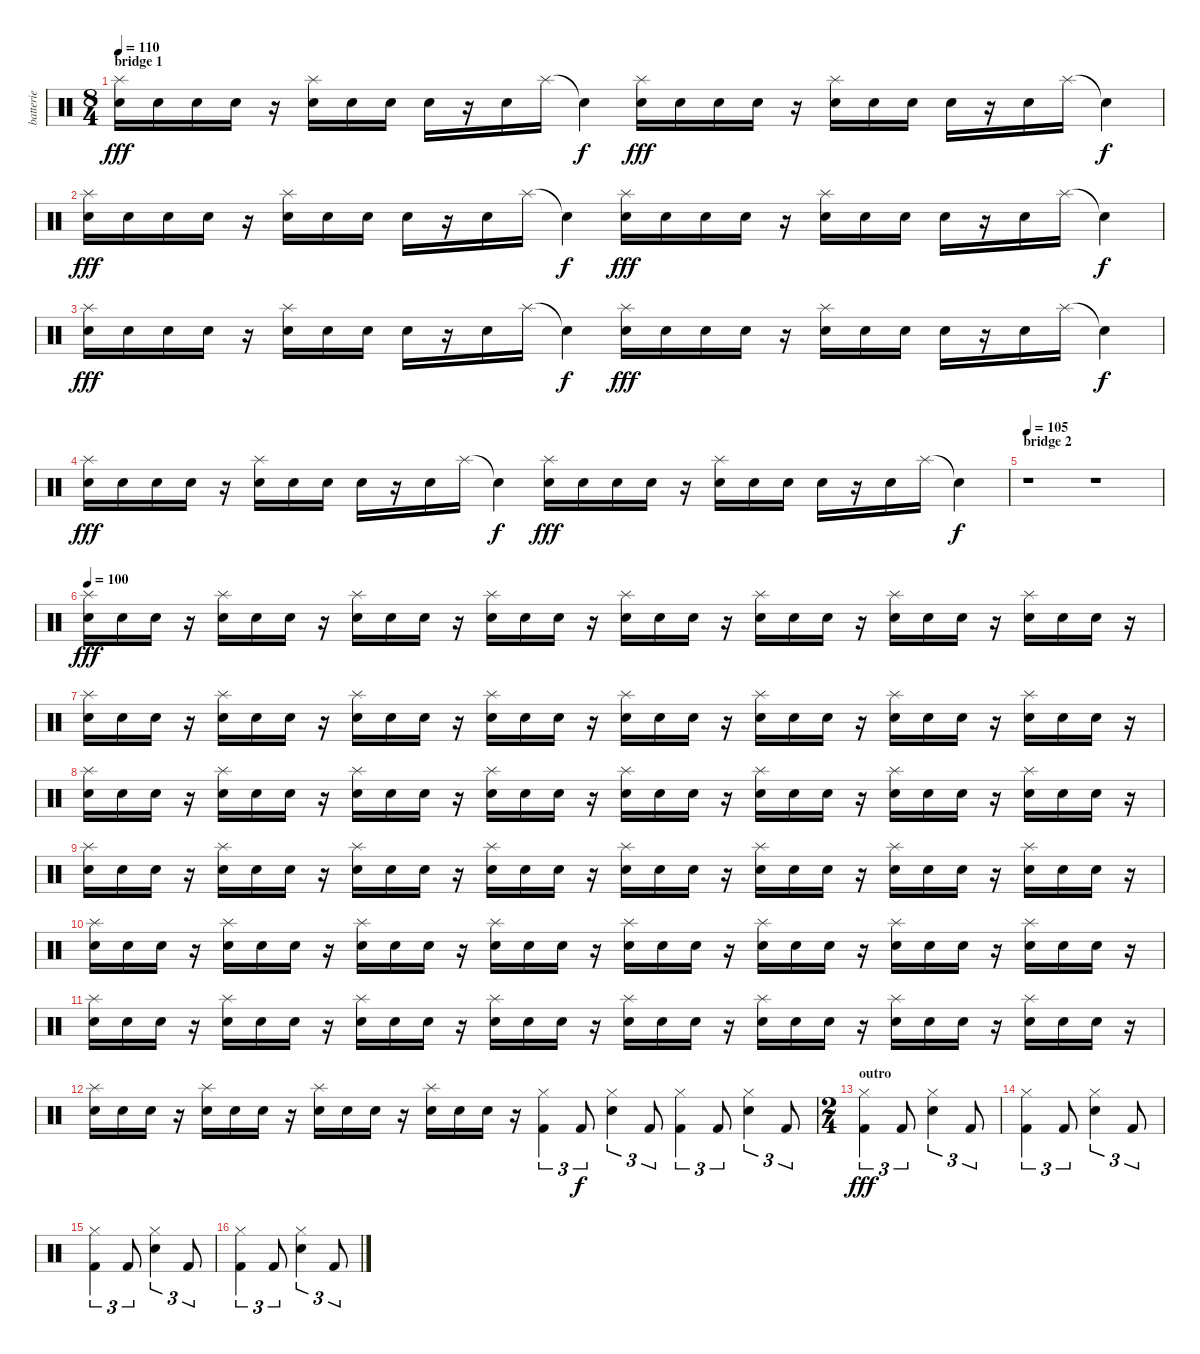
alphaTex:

\track ("batterie" "batterie") {instrument percussion}
\staff {score}
\articulation defaults
\ts (8 4)
\section ("" "bridge 1")
\tempo 110
\clef neutral
\ks c
("Splash (hit)" "Electric Snare (hit)").16{dy fff} "Electric Snare (hit)".16 "Electric Snare (hit)".16 "Electric Snare (hit)".16 r.16 ("Splash (hit)" "Electric Snare (hit)").16 "Electric Snare (hit)".16 "Electric Snare (hit)".16 "Electric Snare (hit)".16 r.16 "Electric Snare (hit)".16 "Splash (hit)".16 "Snare (hit)"{t}.4{dy f} ("Splash (hit)" "Electric Snare (hit)").16{dy fff} "Electric Snare (hit)".16 "Electric Snare (hit)".16 "Electric Snare (hit)".16 r.16 ("Splash (hit)" "Electric Snare (hit)").16 "Electric Snare (hit)".16 "Electric Snare (hit)".16 "Electric Snare (hit)".16 r.16 "Electric Snare (hit)".16 "Splash (hit)".16 "Snare (hit)"{t}.4{dy f} |
("Splash (hit)" "Electric Snare (hit)").16{dy fff} "Electric Snare (hit)".16 "Electric Snare (hit)".16 "Electric Snare (hit)".16 r.16 ("Splash (hit)" "Electric Snare (hit)").16 "Electric Snare (hit)".16 "Electric Snare (hit)".16 "Electric Snare (hit)".16 r.16 "Electric Snare (hit)".16 "Splash (hit)".16 "Snare (hit)"{t}.4{dy f} ("Splash (hit)" "Electric Snare (hit)").16{dy fff} "Electric Snare (hit)".16 "Electric Snare (hit)".16 "Electric Snare (hit)".16 r.16 ("Splash (hit)" "Electric Snare (hit)").16 "Electric Snare (hit)".16 "Electric Snare (hit)".16 "Electric Snare (hit)".16 r.16 "Electric Snare (hit)".16 "Splash (hit)".16 "Snare (hit)"{t}.4{dy f} |
("Splash (hit)" "Electric Snare (hit)").16{dy fff} "Electric Snare (hit)".16 "Electric Snare (hit)".16 "Electric Snare (hit)".16 r.16 ("Splash (hit)" "Electric Snare (hit)").16 "Electric Snare (hit)".16 "Electric Snare (hit)".16 "Electric Snare (hit)".16 r.16 "Electric Snare (hit)".16 "Splash (hit)".16 "Snare (hit)"{t}.4{dy f} ("Splash (hit)" "Electric Snare (hit)").16{dy fff} "Electric Snare (hit)".16 "Electric Snare (hit)".16 "Electric Snare (hit)".16 r.16 ("Splash (hit)" "Electric Snare (hit)").16 "Electric Snare (hit)".16 "Electric Snare (hit)".16 "Electric Snare (hit)".16 r.16 "Electric Snare (hit)".16 "Splash (hit)".16 "Snare (hit)"{t}.4{dy f} |
("Splash (hit)" "Electric Snare (hit)").16{dy fff} "Electric Snare (hit)".16 "Electric Snare (hit)".16 "Electric Snare (hit)".16 r.16 ("Splash (hit)" "Electric Snare (hit)").16 "Electric Snare (hit)".16 "Electric Snare (hit)".16 "Electric Snare (hit)".16 r.16 "Electric Snare (hit)".16 "Splash (hit)".16 "Snare (hit)"{t}.4{dy f} ("Splash (hit)" "Electric Snare (hit)").16{dy fff} "Electric Snare (hit)".16 "Electric Snare (hit)".16 "Electric Snare (hit)".16 r.16 ("Splash (hit)" "Electric Snare (hit)").16 "Electric Snare (hit)".16 "Electric Snare (hit)".16 "Electric Snare (hit)".16 r.16 "Electric Snare (hit)".16 "Splash (hit)".16 "Snare (hit)"{t}.4{dy f} |
\section ("" "bridge 2")
\tempo 105
r.1 r.1 |
\tempo 100
("Splash (hit)" "Electric Snare (hit)").16{dy fff} "Electric Snare (hit)".16 "Electric Snare (hit)".16 r.16 ("Splash (hit)" "Electric Snare (hit)").16 "Electric Snare (hit)".16 "Electric Snare (hit)".16 r.16 ("Splash (hit)" "Electric Snare (hit)").16 "Electric Snare (hit)".16 "Electric Snare (hit)".16 r.16 ("Splash (hit)" "Electric Snare (hit)").16 "Electric Snare (hit)".16 "Electric Snare (hit)".16 r.16 ("Splash (hit)" "Electric Snare (hit)").16 "Electric Snare (hit)".16 "Electric Snare (hit)".16 r.16 ("Splash (hit)" "Electric Snare (hit)").16 "Electric Snare (hit)".16 "Electric Snare (hit)".16 r.16 ("Splash (hit)" "Electric Snare (hit)").16 "Electric Snare (hit)".16 "Electric Snare (hit)".16 r.16 ("Splash (hit)" "Electric Snare (hit)").16 "Electric Snare (hit)".16 "Electric Snare (hit)".16 r.16 |
("Splash (hit)" "Electric Snare (hit)").16 "Electric Snare (hit)".16 "Electric Snare (hit)".16 r.16 ("Splash (hit)" "Electric Snare (hit)").16 "Electric Snare (hit)".16 "Electric Snare (hit)".16 r.16 ("Splash (hit)" "Electric Snare (hit)").16 "Electric Snare (hit)".16 "Electric Snare (hit)".16 r.16 ("Splash (hit)" "Electric Snare (hit)").16 "Electric Snare (hit)".16 "Electric Snare (hit)".16 r.16 ("Splash (hit)" "Electric Snare (hit)").16 "Electric Snare (hit)".16 "Electric Snare (hit)".16 r.16 ("Splash (hit)" "Electric Snare (hit)").16 "Electric Snare (hit)".16 "Electric Snare (hit)".16 r.16 ("Splash (hit)" "Electric Snare (hit)").16 "Electric Snare (hit)".16 "Electric Snare (hit)".16 r.16 ("Splash (hit)" "Electric Snare (hit)").16 "Electric Snare (hit)".16 "Electric Snare (hit)".16 r.16 |
("Splash (hit)" "Electric Snare (hit)").16 "Electric Snare (hit)".16 "Electric Snare (hit)".16 r.16 ("Splash (hit)" "Electric Snare (hit)").16 "Electric Snare (hit)".16 "Electric Snare (hit)".16 r.16 ("Splash (hit)" "Electric Snare (hit)").16 "Electric Snare (hit)".16 "Electric Snare (hit)".16 r.16 ("Splash (hit)" "Electric Snare (hit)").16 "Electric Snare (hit)".16 "Electric Snare (hit)".16 r.16 ("Splash (hit)" "Electric Snare (hit)").16 "Electric Snare (hit)".16 "Electric Snare (hit)".16 r.16 ("Splash (hit)" "Electric Snare (hit)").16 "Electric Snare (hit)".16 "Electric Snare (hit)".16 r.16 ("Splash (hit)" "Electric Snare (hit)").16 "Electric Snare (hit)".16 "Electric Snare (hit)".16 r.16 ("Splash (hit)" "Electric Snare (hit)").16 "Electric Snare (hit)".16 "Electric Snare (hit)".16 r.16 |
("Splash (hit)" "Electric Snare (hit)").16 "Electric Snare (hit)".16 "Electric Snare (hit)".16 r.16 ("Splash (hit)" "Electric Snare (hit)").16 "Electric Snare (hit)".16 "Electric Snare (hit)".16 r.16 ("Splash (hit)" "Electric Snare (hit)").16 "Electric Snare (hit)".16 "Electric Snare (hit)".16 r.16 ("Splash (hit)" "Electric Snare (hit)").16 "Electric Snare (hit)".16 "Electric Snare (hit)".16 r.16 ("Splash (hit)" "Electric Snare (hit)").16 "Electric Snare (hit)".16 "Electric Snare (hit)".16 r.16 ("Splash (hit)" "Electric Snare (hit)").16 "Electric Snare (hit)".16 "Electric Snare (hit)".16 r.16 ("Splash (hit)" "Electric Snare (hit)").16 "Electric Snare (hit)".16 "Electric Snare (hit)".16 r.16 ("Splash (hit)" "Electric Snare (hit)").16 "Electric Snare (hit)".16 "Electric Snare (hit)".16 r.16 |
("Splash (hit)" "Electric Snare (hit)").16{volume 10} "Electric Snare (hit)".16 "Electric Snare (hit)".16 r.16 ("Splash (hit)" "Electric Snare (hit)").16 "Electric Snare (hit)".16 "Electric Snare (hit)".16 r.16 ("Splash (hit)" "Electric Snare (hit)").16 "Electric Snare (hit)".16 "Electric Snare (hit)".16 r.16 ("Splash (hit)" "Electric Snare (hit)").16 "Electric Snare (hit)".16 "Electric Snare (hit)".16 r.16 ("Splash (hit)" "Electric Snare (hit)").16 "Electric Snare (hit)".16 "Electric Snare (hit)".16 r.16 ("Splash (hit)" "Electric Snare (hit)").16 "Electric Snare (hit)".16 "Electric Snare (hit)".16 r.16 ("Splash (hit)" "Electric Snare (hit)").16 "Electric Snare (hit)".16 "Electric Snare (hit)".16 r.16 ("Splash (hit)" "Electric Snare (hit)").16 "Electric Snare (hit)".16 "Electric Snare (hit)".16 r.16 |
("Splash (hit)" "Electric Snare (hit)").16{volume 9} "Electric Snare (hit)".16 "Electric Snare (hit)".16 r.16 ("Splash (hit)" "Electric Snare (hit)").16 "Electric Snare (hit)".16 "Electric Snare (hit)".16 r.16 ("Splash (hit)" "Electric Snare (hit)").16 "Electric Snare (hit)".16 "Electric Snare (hit)".16 r.16 ("Splash (hit)" "Electric Snare (hit)").16 "Electric Snare (hit)".16 "Electric Snare (hit)".16 r.16 ("Splash (hit)" "Electric Snare (hit)").16 "Electric Snare (hit)".16 "Electric Snare (hit)".16 r.16 ("Splash (hit)" "Electric Snare (hit)").16 "Electric Snare (hit)".16 "Electric Snare (hit)".16 r.16 ("Splash (hit)" "Electric Snare (hit)").16 "Electric Snare (hit)".16 "Electric Snare (hit)".16 r.16 ("Splash (hit)" "Electric Snare (hit)").16 "Electric Snare (hit)".16 "Electric Snare (hit)".16 r.16 |
("Splash (hit)" "Electric Snare (hit)").16{volume 7} "Electric Snare (hit)".16 "Electric Snare (hit)".16 r.16 ("Splash (hit)" "Electric Snare (hit)").16 "Electric Snare (hit)".16 "Electric Snare (hit)".16 r.16 ("Splash (hit)" "Electric Snare (hit)").16 "Electric Snare (hit)".16 "Electric Snare (hit)".16 r.16 ("Splash (hit)" "Electric Snare (hit)").16 "Electric Snare (hit)".16 "Electric Snare (hit)".16 r.16{volume 10} ("Hi-Hat (closed)" "Kick (hit) 2").4{tu (3 2) volume 12} "Kick (hit) 2".8{tu (3 2) dy f} ("Hi-Hat (closed)" "Electric Snare (hit)").4{tu (3 2)} "Kick (hit) 2".8{tu (3 2)} ("Hi-Hat (closed)" "Kick (hit) 2").4{tu (3 2)} "Kick (hit) 2".8{tu (3 2)} ("Hi-Hat (closed)" "Electric Snare (hit)").4{tu (3 2)} "Kick (hit) 2".8{tu (3 2)} |
\ts (2 4)
\section ("" "outro")
("Hi-Hat (closed)" "Kick (hit) 2").4{tu (3 2) dy fff} "Kick (hit) 2".8{tu (3 2)} ("Hi-Hat (closed)" "Electric Snare (hit)").4{tu (3 2)} "Kick (hit) 2".8{tu (3 2)} |
("Hi-Hat (closed)" "Kick (hit) 2").4{tu (3 2)} "Kick (hit) 2".8{tu (3 2)} ("Hi-Hat (closed)" "Electric Snare (hit)").4{tu (3 2)} "Kick (hit) 2".8{tu (3 2)} |
("Hi-Hat (closed)" "Kick (hit) 2").4{tu (3 2)} "Kick (hit) 2".8{tu (3 2)} ("Hi-Hat (closed)" "Electric Snare (hit)").4{tu (3 2)} "Kick (hit) 2".8{tu (3 2)} |
("Hi-Hat (closed)" "Kick (hit) 2").4{tu (3 2)} "Kick (hit) 2".8{tu (3 2)} ("Hi-Hat (closed)" "Electric Snare (hit)").4{tu (3 2)} "Kick (hit) 2".8{tu (3 2)}
